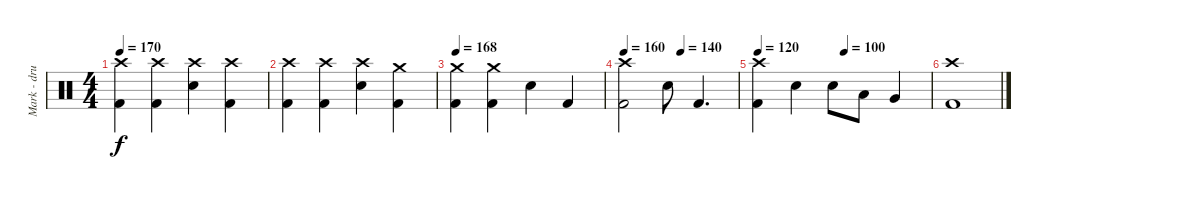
\track ("Mark - drums" "Mark - dru") {instrument percussion}
\staff {score}
\articulation defaults
\ts (4 4)
\tempo 170
\clef neutral
\ks c
("Kick (hit) 2" "Crash high (hit)").4{dy f} ("Kick (hit) 2" "Crash high (hit)").4 ("Electric Snare (hit)" "Crash high (hit)").4 ("Kick (hit) 2" "Crash high (hit)").4 |
("Kick (hit) 2" "Crash high (hit)").4 ("Kick (hit) 2" "Crash high (hit)").4 ("Electric Snare (hit)" "Crash high (hit)").4 ("Kick (hit) 2" "Crash medium (hit)").4 |
\tempo 168
("Kick (hit) 2" "Crash medium (hit)").4 ("Kick (hit) 2" "Crash medium (hit)").4 "Electric Snare (hit)".4 "Kick (hit) 2".4 |
\tempo 160
\tempo (140 0.5)
("Kick (hit) 2" "Crash high (hit)").2 "Electric Snare (hit)".8 "Kick (hit) 2".4{d} |
\tempo 120
\tempo (100 0.5)
("Kick (hit) 2" "Crash high (hit)").4 "Electric Snare (hit)".4 "Electric Snare (hit)".8 "Low Tom (hit)".8 "Very Low Tom (hit)".4 |
("Kick (hit) 2" "Crash high (hit)").1
